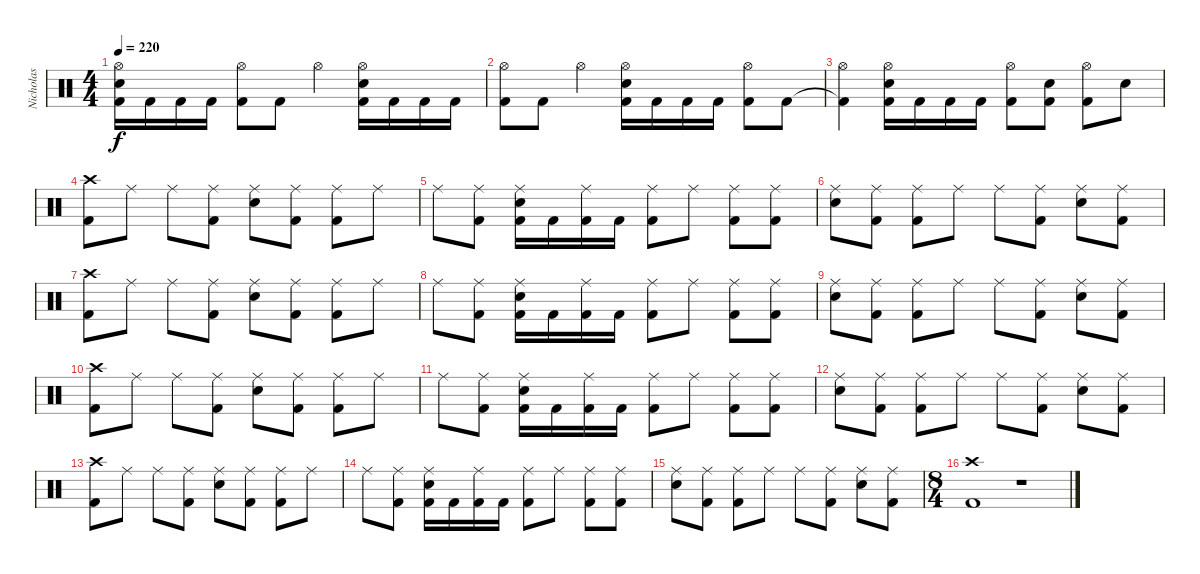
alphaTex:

\track ("Nicholas" "Nicholas") {instrument percussion}
\staff {score}
\articulation defaults
\ts (4 4)
\tempo 220
\clef neutral
\ks c
("Kick (hit) 2" "Snare (hit) 2" "Hi-Hat (open)").16{dy f} "Kick (hit) 2".16 "Kick (hit) 2".16 "Kick (hit) 2".16 ("Kick (hit) 2" "Hi-Hat (open)").8 "Kick (hit) 2".8 "Hi-Hat (open)".4 ("Kick (hit) 2" "Snare (hit) 2" "Hi-Hat (open)").16 "Kick (hit) 2".16 "Kick (hit) 2".16 "Kick (hit) 2".16 |
("Kick (hit) 2" "Hi-Hat (open)").8 "Kick (hit) 2".8 "Hi-Hat (open)".4 ("Kick (hit) 2" "Snare (hit) 2" "Hi-Hat (open)").16 "Kick (hit) 2".16 "Kick (hit) 2".16 "Kick (hit) 2".16 ("Kick (hit) 2" "Hi-Hat (open)").8 "Kick (hit) 2".8 |
("Kick (hit) 2"{t} "Hi-Hat (open)").4 ("Kick (hit) 2" "Snare (hit) 2" "Hi-Hat (open)").16 "Kick (hit) 2".16 "Kick (hit) 2".16 "Kick (hit) 2".16 ("Kick (hit) 2" "Hi-Hat (open)").8 ("Kick (hit) 2" "Snare (hit) 2").8 ("Kick (hit) 2" "Hi-Hat (open)").8 "Snare (hit) 2".8 |
("Kick (hit) 2" "Crash high (hit)").8 "Ride (middle)".8 "Ride (middle)".8 ("Kick (hit) 2" "Ride (middle)").8 ("Snare (hit) 2" "Ride (middle)").8 ("Kick (hit) 2" "Ride (middle)").8 ("Kick (hit) 2" "Ride (middle)").8 "Ride (middle)".8 |
"Ride (middle)".8 ("Kick (hit) 2" "Ride (middle)").8 ("Kick (hit) 2" "Snare (hit) 2" "Ride (middle)").16 "Kick (hit) 2".16 ("Kick (hit) 2" "Ride (middle)").16 "Kick (hit) 2".16 ("Kick (hit) 2" "Ride (middle)").8 "Ride (middle)".8 ("Kick (hit) 2" "Ride (middle)").8 ("Kick (hit) 2" "Ride (middle)").8 |
("Snare (hit) 2" "Ride (middle)").8 ("Kick (hit) 2" "Ride (middle)").8 ("Kick (hit) 2" "Ride (middle)").8 "Ride (middle)".8 "Ride (middle)".8 ("Kick (hit) 2" "Ride (middle)").8 ("Snare (hit) 2" "Ride (middle)").8 ("Kick (hit) 2" "Ride (middle)").8 |
("Kick (hit) 2" "Crash high (hit)").8 "Ride (middle)".8 "Ride (middle)".8 ("Kick (hit) 2" "Ride (middle)").8 ("Snare (hit) 2" "Ride (middle)").8 ("Kick (hit) 2" "Ride (middle)").8 ("Kick (hit) 2" "Ride (middle)").8 "Ride (middle)".8 |
"Ride (middle)".8 ("Kick (hit) 2" "Ride (middle)").8 ("Kick (hit) 2" "Snare (hit) 2" "Ride (middle)").16 "Kick (hit) 2".16 ("Kick (hit) 2" "Ride (middle)").16 "Kick (hit) 2".16 ("Kick (hit) 2" "Ride (middle)").8 "Ride (middle)".8 ("Kick (hit) 2" "Ride (middle)").8 ("Kick (hit) 2" "Ride (middle)").8 |
("Snare (hit) 2" "Ride (middle)").8 ("Kick (hit) 2" "Ride (middle)").8 ("Kick (hit) 2" "Ride (middle)").8 "Ride (middle)".8 "Ride (middle)".8 ("Kick (hit) 2" "Ride (middle)").8 ("Snare (hit) 2" "Ride (middle)").8 ("Kick (hit) 2" "Ride (middle)").8 |
("Kick (hit) 2" "Crash high (hit)").8 "Ride (middle)".8 "Ride (middle)".8 ("Kick (hit) 2" "Ride (middle)").8 ("Snare (hit) 2" "Ride (middle)").8 ("Kick (hit) 2" "Ride (middle)").8 ("Kick (hit) 2" "Ride (middle)").8 "Ride (middle)".8 |
"Ride (middle)".8 ("Kick (hit) 2" "Ride (middle)").8 ("Kick (hit) 2" "Snare (hit) 2" "Ride (middle)").16 "Kick (hit) 2".16 ("Kick (hit) 2" "Ride (middle)").16 "Kick (hit) 2".16 ("Kick (hit) 2" "Ride (middle)").8 "Ride (middle)".8 ("Kick (hit) 2" "Ride (middle)").8 ("Kick (hit) 2" "Ride (middle)").8 |
("Snare (hit) 2" "Ride (middle)").8 ("Kick (hit) 2" "Ride (middle)").8 ("Kick (hit) 2" "Ride (middle)").8 "Ride (middle)".8 "Ride (middle)".8 ("Kick (hit) 2" "Ride (middle)").8 ("Snare (hit) 2" "Ride (middle)").8 ("Kick (hit) 2" "Ride (middle)").8 |
("Kick (hit) 2" "Crash high (hit)").8 "Ride (middle)".8 "Ride (middle)".8 ("Kick (hit) 2" "Ride (middle)").8 ("Snare (hit) 2" "Ride (middle)").8 ("Kick (hit) 2" "Ride (middle)").8 ("Kick (hit) 2" "Ride (middle)").8 "Ride (middle)".8 |
"Ride (middle)".8 ("Kick (hit) 2" "Ride (middle)").8 ("Kick (hit) 2" "Snare (hit) 2" "Ride (middle)").16 "Kick (hit) 2".16 ("Kick (hit) 2" "Ride (middle)").16 "Kick (hit) 2".16 ("Kick (hit) 2" "Ride (middle)").8 "Ride (middle)".8 ("Kick (hit) 2" "Ride (middle)").8 ("Kick (hit) 2" "Ride (middle)").8 |
("Snare (hit) 2" "Ride (middle)").8 ("Kick (hit) 2" "Ride (middle)").8 ("Kick (hit) 2" "Ride (middle)").8 "Ride (middle)".8 "Ride (middle)".8 ("Kick (hit) 2" "Ride (middle)").8 ("Snare (hit) 2" "Ride (middle)").8 ("Kick (hit) 2" "Ride (middle)").8 |
\ts (8 4)
("Kick (hit) 2" "Crash high (hit)").1 r.1
